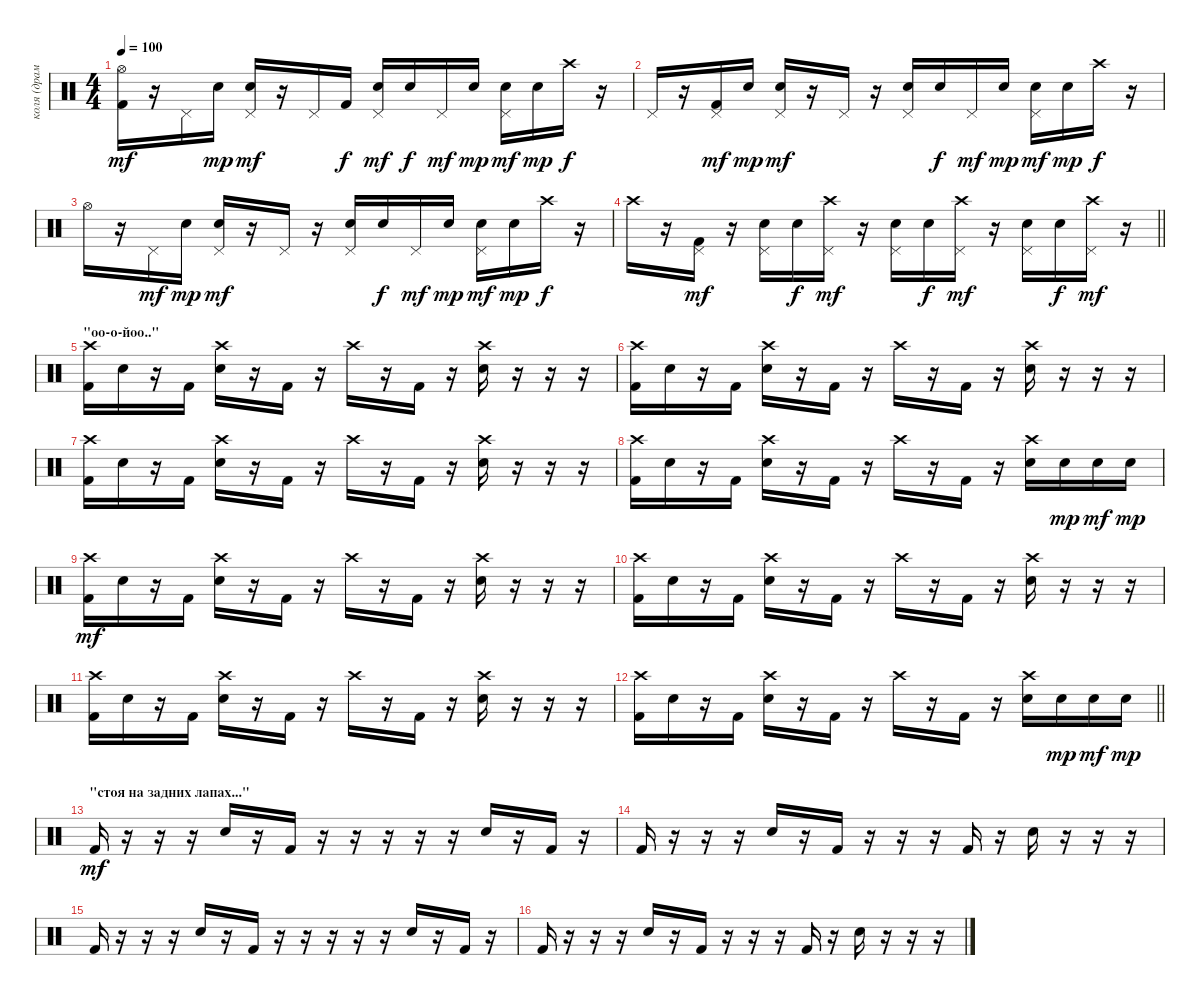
\track ("коля (драммы)" "коля (драм") {instrument percussion}
\staff {score}
\articulation defaults
\ts (4 4)
\tempo 100
\clef neutral
\ks c
("Hi-Hat (open)" "Kick (hit) 2").16{dy mf} r.16 "Pedal Hi-Hat (hit)".16 "Snare (hit) 2".16{dy mp} ("Snare (hit) 2" "Pedal Hi-Hat (hit)").16{dy mf} r.16 "Pedal Hi-Hat (hit)".16 "Kick (hit) 2".16{dy f} ("Snare (hit) 2" "Pedal Hi-Hat (hit)").16{dy mf} "Snare (hit) 2".16{dy f} "Pedal Hi-Hat (hit)".16{dy mf} "Snare (hit) 2".16{dy mp} ("Snare (hit) 2" "Pedal Hi-Hat (hit)").16{dy mf} "Snare (hit) 2".16{dy mp} "Crash high (hit)".16{dy f} r.16 |
"Pedal Hi-Hat (hit)".16 r.16 ("Pedal Hi-Hat (hit)" "Kick (hit) 2").16{dy mf} "Snare (hit) 2".16{dy mp} ("Snare (hit) 2" "Pedal Hi-Hat (hit)").16{dy mf} r.16 "Pedal Hi-Hat (hit)".16 r.16 ("Snare (hit) 2" "Pedal Hi-Hat (hit)").16 "Snare (hit) 2".16{dy f} "Pedal Hi-Hat (hit)".16{dy mf} "Snare (hit) 2".16{dy mp} ("Snare (hit) 2" "Pedal Hi-Hat (hit)").16{dy mf} "Snare (hit) 2".16{dy mp} "Crash high (hit)".16{dy f} r.16 |
"Hi-Hat (open)".16 r.16 "Pedal Hi-Hat (hit)".16{dy mf} "Snare (hit) 2".16{dy mp} ("Snare (hit) 2" "Pedal Hi-Hat (hit)").16{dy mf} r.16 "Pedal Hi-Hat (hit)".16 r.16 ("Snare (hit) 2" "Pedal Hi-Hat (hit)").16 "Snare (hit) 2".16{dy f} "Pedal Hi-Hat (hit)".16{dy mf} "Snare (hit) 2".16{dy mp} ("Snare (hit) 2" "Pedal Hi-Hat (hit)").16{dy mf} "Snare (hit) 2".16{dy mp} "Crash high (hit)".16{dy f} r.16 |
\barLineRight lightlight "Crash high (hit)".16
r.16 ("Pedal Hi-Hat (hit)" "Kick (hit) 2").16{dy mf} r.16 ("Snare (hit) 2" "Pedal Hi-Hat (hit)").16 "Snare (hit) 2".16{dy f} ("Crash high (hit)" "Pedal Hi-Hat (hit)").16{dy mf} r.16 ("Snare (hit) 2" "Pedal Hi-Hat (hit)").16 "Snare (hit) 2".16{dy f} ("Crash high (hit)" "Pedal Hi-Hat (hit)").16{dy mf} r.16 ("Snare (hit) 2" "Pedal Hi-Hat (hit)").16 "Snare (hit) 2".16{dy f} ("Crash high (hit)" "Pedal Hi-Hat (hit)").16{dy mf} r.16 |
\section ("" "\"оо-о-йоо..\"")
("Crash high (hit)" "Kick (hit) 2").16 "Snare (hit) 2".16 r.16 "Kick (hit) 2".16 ("Snare (hit) 2" "Crash high (hit)").16 r.16 "Kick (hit) 2".16 r.16 "Crash high (hit)".16 r.16 "Kick (hit) 2".16 r.16 ("Snare (hit) 2" "Crash high (hit)").16 r.16 r.16 r.16 |
("Crash high (hit)" "Kick (hit) 2").16 "Snare (hit) 2".16 r.16 "Kick (hit) 2".16 ("Snare (hit) 2" "Crash high (hit)").16 r.16 "Kick (hit) 2".16 r.16 "Crash high (hit)".16 r.16 "Kick (hit) 2".16 r.16 ("Snare (hit) 2" "Crash high (hit)").16 r.16 r.16 r.16 |
("Crash high (hit)" "Kick (hit) 2").16 "Snare (hit) 2".16 r.16 "Kick (hit) 2".16 ("Snare (hit) 2" "Crash high (hit)").16 r.16 "Kick (hit) 2".16 r.16 "Crash high (hit)".16 r.16 "Kick (hit) 2".16 r.16 ("Snare (hit) 2" "Crash high (hit)").16 r.16 r.16 r.16 |
("Crash high (hit)" "Kick (hit) 2").16 "Snare (hit) 2".16 r.16 "Kick (hit) 2".16 ("Snare (hit) 2" "Crash high (hit)").16 r.16 "Kick (hit) 2".16 r.16 "Crash high (hit)".16 r.16 "Kick (hit) 2".16 r.16 ("Snare (hit) 2" "Crash high (hit)").16 "Snare (hit) 2".16{dy mp} "Snare (hit) 2".16{dy mf} "Snare (hit) 2".16{dy mp} |
("Crash high (hit)" "Kick (hit) 2").16{dy mf} "Snare (hit) 2".16 r.16 "Kick (hit) 2".16 ("Snare (hit) 2" "Crash high (hit)").16 r.16 "Kick (hit) 2".16 r.16 "Crash high (hit)".16 r.16 "Kick (hit) 2".16 r.16 ("Snare (hit) 2" "Crash high (hit)").16 r.16 r.16 r.16 |
("Crash high (hit)" "Kick (hit) 2").16 "Snare (hit) 2".16 r.16 "Kick (hit) 2".16 ("Snare (hit) 2" "Crash high (hit)").16 r.16 "Kick (hit) 2".16 r.16 "Crash high (hit)".16 r.16 "Kick (hit) 2".16 r.16 ("Snare (hit) 2" "Crash high (hit)").16 r.16 r.16 r.16 |
("Crash high (hit)" "Kick (hit) 2").16 "Snare (hit) 2".16 r.16 "Kick (hit) 2".16 ("Snare (hit) 2" "Crash high (hit)").16 r.16 "Kick (hit) 2".16 r.16 "Crash high (hit)".16 r.16 "Kick (hit) 2".16 r.16 ("Snare (hit) 2" "Crash high (hit)").16 r.16 r.16 r.16 |
\barLineRight lightlight
("Crash high (hit)" "Kick (hit) 2").16 "Snare (hit) 2".16 r.16 "Kick (hit) 2".16 ("Snare (hit) 2" "Crash high (hit)").16 r.16 "Kick (hit) 2".16 r.16 "Crash high (hit)".16 r.16 "Kick (hit) 2".16 r.16 ("Snare (hit) 2" "Crash high (hit)").16 "Snare (hit) 2".16{dy mp} "Snare (hit) 2".16{dy mf} "Snare (hit) 2".16{dy mp} |
\section ("" "\"стоя на задних лапах...\"")
"Kick (hit) 2".16{dy mf} r.16 r.16 r.16 "Snare (hit) 2".16 r.16 "Kick (hit) 2".16 r.16 r.16 r.16 r.16 r.16 "Snare (hit) 2".16 r.16 "Kick (hit) 2".16 r.16 |
"Kick (hit) 2".16 r.16 r.16 r.16 "Snare (hit) 2".16 r.16 "Kick (hit) 2".16 r.16 r.16 r.16 "Kick (hit) 2".16 r.16 "Snare (hit) 2".16 r.16 r.16 r.16 |
"Kick (hit) 2".16 r.16 r.16 r.16 "Snare (hit) 2".16 r.16 "Kick (hit) 2".16 r.16 r.16 r.16 r.16 r.16 "Snare (hit) 2".16 r.16 "Kick (hit) 2".16 r.16 |
"Kick (hit) 2".16 r.16 r.16 r.16 "Snare (hit) 2".16 r.16 "Kick (hit) 2".16 r.16 r.16 r.16 "Kick (hit) 2".16 r.16 "Snare (hit) 2".16 r.16 r.16 r.16
